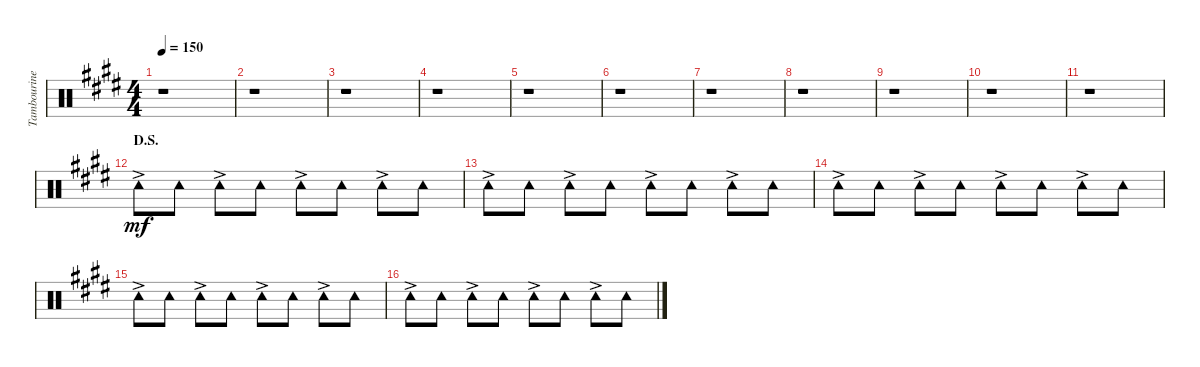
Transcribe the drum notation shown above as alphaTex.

\track ("Tambourine" "Tambourine") {instrument percussion}
\staff {score}
\articulation defaults
\ts (4 4)
\tempo 150
\clef neutral
\ks e
r.1{dy mf} |
r.1 |
r.1 |
r.1 |
r.1 |
r.1 |
r.1 |
r.1 |
r.1 |
r.1 |
r.1 |
\section ("" "D.S.")
"Tambourine (hit)"{ac}.8 "Tambourine (hit)".8 "Tambourine (hit)"{ac}.8 "Tambourine (hit)".8 "Tambourine (hit)"{ac}.8 "Tambourine (hit)".8 "Tambourine (hit)"{ac}.8 "Tambourine (hit)".8 |
"Tambourine (hit)"{ac}.8 "Tambourine (hit)".8 "Tambourine (hit)"{ac}.8 "Tambourine (hit)".8 "Tambourine (hit)"{ac}.8 "Tambourine (hit)".8 "Tambourine (hit)"{ac}.8 "Tambourine (hit)".8 |
"Tambourine (hit)"{ac}.8 "Tambourine (hit)".8 "Tambourine (hit)"{ac}.8 "Tambourine (hit)".8 "Tambourine (hit)"{ac}.8 "Tambourine (hit)".8 "Tambourine (hit)"{ac}.8 "Tambourine (hit)".8 |
"Tambourine (hit)"{ac}.8 "Tambourine (hit)".8 "Tambourine (hit)"{ac}.8 "Tambourine (hit)".8 "Tambourine (hit)"{ac}.8 "Tambourine (hit)".8 "Tambourine (hit)"{ac}.8 "Tambourine (hit)".8 |
"Tambourine (hit)"{ac}.8 "Tambourine (hit)".8 "Tambourine (hit)"{ac}.8 "Tambourine (hit)".8 "Tambourine (hit)"{ac}.8 "Tambourine (hit)".8 "Tambourine (hit)"{ac}.8 "Tambourine (hit)".8
